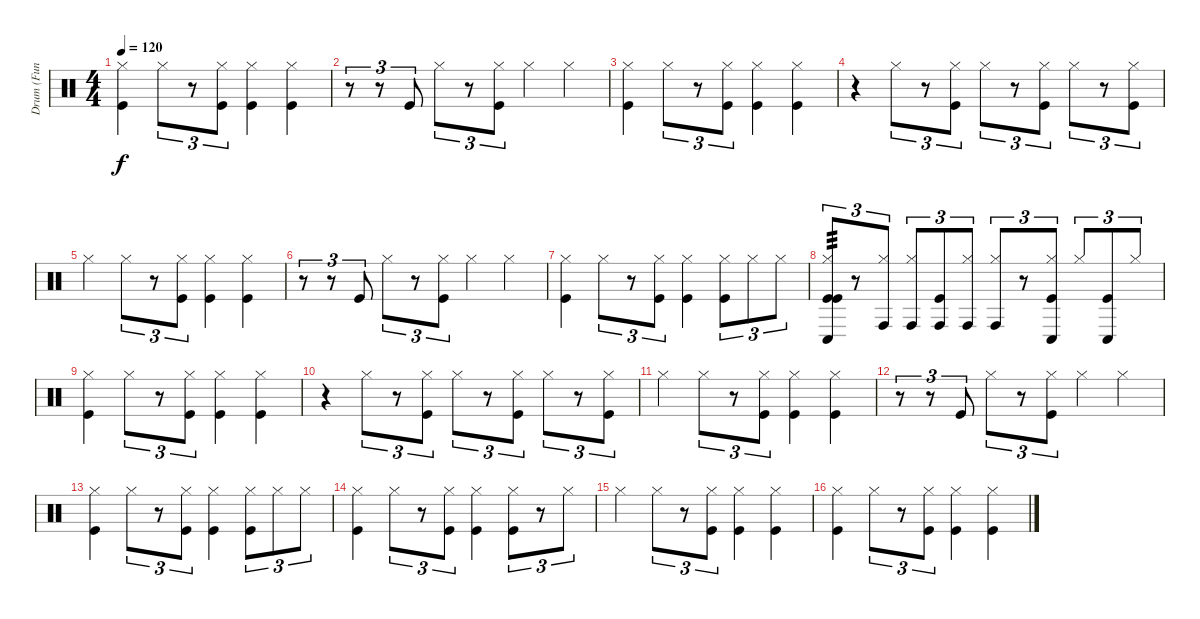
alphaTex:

\track ("Drum (Fun Track)" "Drum (Fun ") {instrument percussion}
\staff {score}
\articulation defaults
\ts (4 4)
\tempo 120
\clef neutral
\ks c
("Hi-Hat (closed)" "Kick (hit)").4{dy f} "Hi-Hat (closed)".8{tu (3 2)} r.8{tu (3 2)} ("Hi-Hat (closed)" "Kick (hit)").8{tu (3 2)} ("Hi-Hat (closed)" "Kick (hit)").4 ("Hi-Hat (closed)" "Kick (hit)").4 |
r.8{tu (3 2)} r.8{tu (3 2)} "Kick (hit)".8{tu (3 2)} "Hi-Hat (closed)".8{tu (3 2)} r.8{tu (3 2)} ("Hi-Hat (closed)" "Kick (hit)").8{tu (3 2)} "Hi-Hat (closed)".4 "Hi-Hat (closed)".4 |
("Hi-Hat (closed)" "Kick (hit)").4 "Hi-Hat (closed)".8{tu (3 2)} r.8{tu (3 2)} ("Hi-Hat (closed)" "Kick (hit)").8{tu (3 2)} ("Hi-Hat (closed)" "Kick (hit)").4 ("Hi-Hat (closed)" "Kick (hit)").4 |
r.4 "Hi-Hat (closed)".8{tu (3 2)} r.8{tu (3 2)} ("Hi-Hat (closed)" "Kick (hit)").8{tu (3 2)} "Hi-Hat (closed)".8{tu (3 2)} r.8{tu (3 2)} ("Hi-Hat (closed)" "Kick (hit)").8{tu (3 2)} "Hi-Hat (closed)".8{tu (3 2)} r.8{tu (3 2)} ("Hi-Hat (closed)" "Kick (hit)").8{tu (3 2)} |
"Hi-Hat (closed)".4 "Hi-Hat (closed)".8{tu (3 2)} r.8{tu (3 2)} ("Hi-Hat (closed)" "Kick (hit)").8{tu (3 2)} ("Hi-Hat (closed)" "Kick (hit)").4 ("Hi-Hat (closed)" "Kick (hit)").4 |
r.8{tu (3 2)} r.8{tu (3 2)} "Kick (hit)".8{tu (3 2)} "Hi-Hat (closed)".8{tu (3 2)} r.8{tu (3 2)} ("Hi-Hat (closed)" "Kick (hit)").8{tu (3 2)} "Hi-Hat (closed)".4 "Hi-Hat (closed)".4 |
("Hi-Hat (closed)" "Kick (hit)").4 "Hi-Hat (closed)".8{tu (3 2)} r.8{tu (3 2)} ("Hi-Hat (closed)" "Kick (hit)").8{tu (3 2)} ("Hi-Hat (closed)" "Kick (hit)").4 ("Hi-Hat (closed)" "Kick (hit)").8{tu (3 2)} "Hi-Hat (closed)".8{tu (3 2)} "Hi-Hat (closed)".8{tu (3 2)} |
("Hi-Hat (closed)" "Conga low (hit)" "Kick (hit)" "Kick (hit)").8{tu (3 2) tp 3} r.8{tu (3 2)} ("Hi-Hat (closed)" "Conga high (hit)").8{tu (3 2)} ("Hi-Hat (closed)" "Conga high (hit)").8{tu (3 2)} ("Conga high (hit)" "Kick (hit)").8{tu (3 2)} ("Hi-Hat (closed)" "Conga high (hit)").8{tu (3 2)} ("Hi-Hat (closed)" "Conga high (hit)").8{tu (3 2)} r.8{tu (3 2)} ("Hi-Hat (closed)" "Kick (hit)" "Conga low (hit)").8{tu (3 2)} "Hi-Hat (closed)".8{tu (3 2)} ("Kick (hit)" "Conga low (hit)").8{tu (3 2)} "Hi-Hat (closed)".8{tu (3 2)} |
("Hi-Hat (closed)" "Kick (hit)").4 "Hi-Hat (closed)".8{tu (3 2)} r.8{tu (3 2)} ("Hi-Hat (closed)" "Kick (hit)").8{tu (3 2)} ("Hi-Hat (closed)" "Kick (hit)").4 ("Hi-Hat (closed)" "Kick (hit)").4 |
r.4 "Hi-Hat (closed)".8{tu (3 2)} r.8{tu (3 2)} ("Hi-Hat (closed)" "Kick (hit)").8{tu (3 2)} "Hi-Hat (closed)".8{tu (3 2)} r.8{tu (3 2)} ("Hi-Hat (closed)" "Kick (hit)").8{tu (3 2)} "Hi-Hat (closed)".8{tu (3 2)} r.8{tu (3 2)} ("Hi-Hat (closed)" "Kick (hit)").8{tu (3 2)} |
"Hi-Hat (closed)".4 "Hi-Hat (closed)".8{tu (3 2)} r.8{tu (3 2)} ("Hi-Hat (closed)" "Kick (hit)").8{tu (3 2)} ("Hi-Hat (closed)" "Kick (hit)").4 ("Hi-Hat (closed)" "Kick (hit)").4 |
r.8{tu (3 2)} r.8{tu (3 2)} "Kick (hit)".8{tu (3 2)} "Hi-Hat (closed)".8{tu (3 2)} r.8{tu (3 2)} ("Hi-Hat (closed)" "Kick (hit)").8{tu (3 2)} "Hi-Hat (closed)".4 "Hi-Hat (closed)".4 |
("Hi-Hat (closed)" "Kick (hit)").4 "Hi-Hat (closed)".8{tu (3 2)} r.8{tu (3 2)} ("Hi-Hat (closed)" "Kick (hit)").8{tu (3 2)} ("Hi-Hat (closed)" "Kick (hit)").4 ("Hi-Hat (closed)" "Kick (hit)").8{tu (3 2)} "Hi-Hat (closed)".8{tu (3 2)} "Hi-Hat (closed)".8{tu (3 2)} |
("Hi-Hat (closed)" "Kick (hit)").4 "Hi-Hat (closed)".8{tu (3 2)} r.8{tu (3 2)} ("Hi-Hat (closed)" "Kick (hit)").8{tu (3 2)} ("Hi-Hat (closed)" "Kick (hit)").4 ("Hi-Hat (closed)" "Kick (hit)").8{tu (3 2)} r.8{tu (3 2)} "Hi-Hat (closed)".8{tu (3 2)} |
"Hi-Hat (closed)".4 "Hi-Hat (closed)".8{tu (3 2)} r.8{tu (3 2)} ("Hi-Hat (closed)" "Kick (hit)").8{tu (3 2)} ("Hi-Hat (closed)" "Kick (hit)").4 ("Hi-Hat (closed)" "Kick (hit)").4 |
("Hi-Hat (closed)" "Kick (hit)").4 "Hi-Hat (closed)".8{tu (3 2)} r.8{tu (3 2)} ("Hi-Hat (closed)" "Kick (hit)").8{tu (3 2)} ("Hi-Hat (closed)" "Kick (hit)").4 ("Hi-Hat (closed)" "Kick (hit)").4
